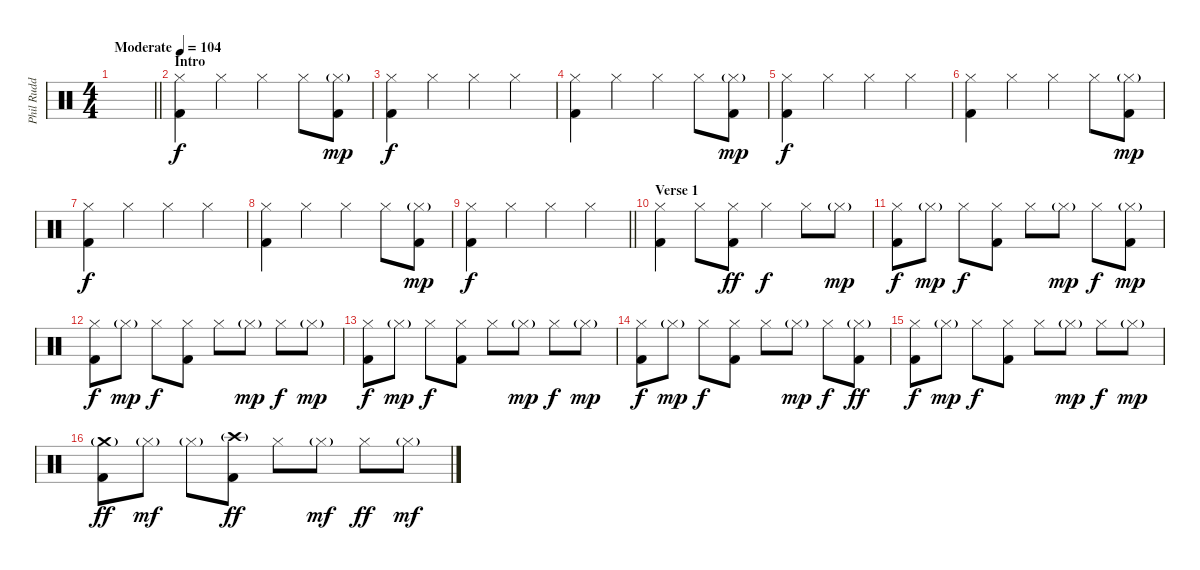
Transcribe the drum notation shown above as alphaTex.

\track ("Phil Rudd" "Phil Rudd") {instrument percussion}
\staff {score}
\articulation defaults
\ts (4 4)
\tempo (104 "Moderate")
\clef neutral
\barLineRight lightlight
\ks c
|
\section ("" "Intro")
("Hi-Hat (closed)" "Kick (hit) 2").4 "Hi-Hat (closed)".4 "Hi-Hat (closed)".4 "Hi-Hat (closed)".8 ("Hi-Hat (closed)"{g} "Kick (hit) 2").8{dy mp} |
("Hi-Hat (closed)" "Kick (hit) 2").4{dy f} "Hi-Hat (closed)".4 "Hi-Hat (closed)".4 "Hi-Hat (closed)".4 |
("Hi-Hat (closed)" "Kick (hit) 2").4 "Hi-Hat (closed)".4 "Hi-Hat (closed)".4 "Hi-Hat (closed)".8 ("Hi-Hat (closed)"{g} "Kick (hit) 2").8{dy mp} |
("Hi-Hat (closed)" "Kick (hit) 2").4{dy f} "Hi-Hat (closed)".4 "Hi-Hat (closed)".4 "Hi-Hat (closed)".4 |
("Hi-Hat (closed)" "Kick (hit) 2").4 "Hi-Hat (closed)".4 "Hi-Hat (closed)".4 "Hi-Hat (closed)".8 ("Hi-Hat (closed)"{g} "Kick (hit) 2").8{dy mp} |
("Hi-Hat (closed)" "Kick (hit) 2").4{dy f} "Hi-Hat (closed)".4 "Hi-Hat (closed)".4 "Hi-Hat (closed)".4 |
("Hi-Hat (closed)" "Kick (hit) 2").4 "Hi-Hat (closed)".4 "Hi-Hat (closed)".4 "Hi-Hat (closed)".8 ("Hi-Hat (closed)"{g} "Kick (hit) 2").8{dy mp} |
\barLineRight lightlight
("Hi-Hat (closed)" "Kick (hit) 2").4{dy f} "Hi-Hat (closed)".4 "Hi-Hat (closed)".4 "Hi-Hat (closed)".4 |
\section ("" "Verse 1")
("Hi-Hat (closed)" "Kick (hit) 2").4 "Hi-Hat (closed)".8 ("Hi-Hat (closed)" "Kick (hit) 2").8{dy ff} "Hi-Hat (closed)".4{dy f} "Hi-Hat (closed)".8 "Hi-Hat (closed)"{g}.8{dy mp} |
("Hi-Hat (closed)" "Kick (hit) 2").8{dy f} "Hi-Hat (closed)"{g}.8{dy mp} "Hi-Hat (closed)".8{dy f} ("Hi-Hat (closed)" "Kick (hit) 2").8 "Hi-Hat (closed)".8 "Hi-Hat (closed)"{g}.8{dy mp} "Hi-Hat (closed)".8{dy f} ("Hi-Hat (closed)"{g} "Kick (hit) 2").8{dy mp} |
("Hi-Hat (closed)" "Kick (hit) 2").8{dy f} "Hi-Hat (closed)"{g}.8{dy mp} "Hi-Hat (closed)".8{dy f} ("Hi-Hat (closed)" "Kick (hit) 2").8 "Hi-Hat (closed)".8 "Hi-Hat (closed)"{g}.8{dy mp} "Hi-Hat (closed)".8{dy f} "Hi-Hat (closed)"{g}.8{dy mp} |
("Hi-Hat (closed)" "Kick (hit) 2").8{dy f} "Hi-Hat (closed)"{g}.8{dy mp} "Hi-Hat (closed)".8{dy f} ("Hi-Hat (closed)" "Kick (hit) 2").8 "Hi-Hat (closed)".8 "Hi-Hat (closed)"{g}.8{dy mp} "Hi-Hat (closed)".8{dy f} "Hi-Hat (closed)"{g}.8{dy mp} |
("Hi-Hat (closed)" "Kick (hit) 2").8{dy f} "Hi-Hat (closed)"{g}.8{dy mp} "Hi-Hat (closed)".8{dy f} ("Hi-Hat (closed)" "Kick (hit) 2").8 "Hi-Hat (closed)".8 "Hi-Hat (closed)"{g}.8{dy mp} "Hi-Hat (closed)".8{dy f} ("Hi-Hat (closed)"{g} "Kick (hit) 2").8{dy ff} |
("Hi-Hat (closed)" "Kick (hit) 2").8{dy f} "Hi-Hat (closed)"{g}.8{dy mp} "Hi-Hat (closed)".8{dy f} ("Hi-Hat (closed)" "Kick (hit) 2").8 "Hi-Hat (closed)".8 "Hi-Hat (closed)"{g}.8{dy mp} "Hi-Hat (closed)".8{dy f} "Hi-Hat (closed)"{g}.8{dy mp} |
("Crash medium (hit)"{g} "Kick (hit) 2").8{dy ff} "Hi-Hat (closed)"{g}.8{dy mf} "Hi-Hat (closed)"{g}.8 ("Crash high (hit)"{g} "Kick (hit) 2").8{dy ff} "Hi-Hat (closed)".8 "Hi-Hat (closed)"{g}.8{dy mf} "Hi-Hat (closed)".8{dy ff} "Hi-Hat (closed)"{g}.8{dy mf}
